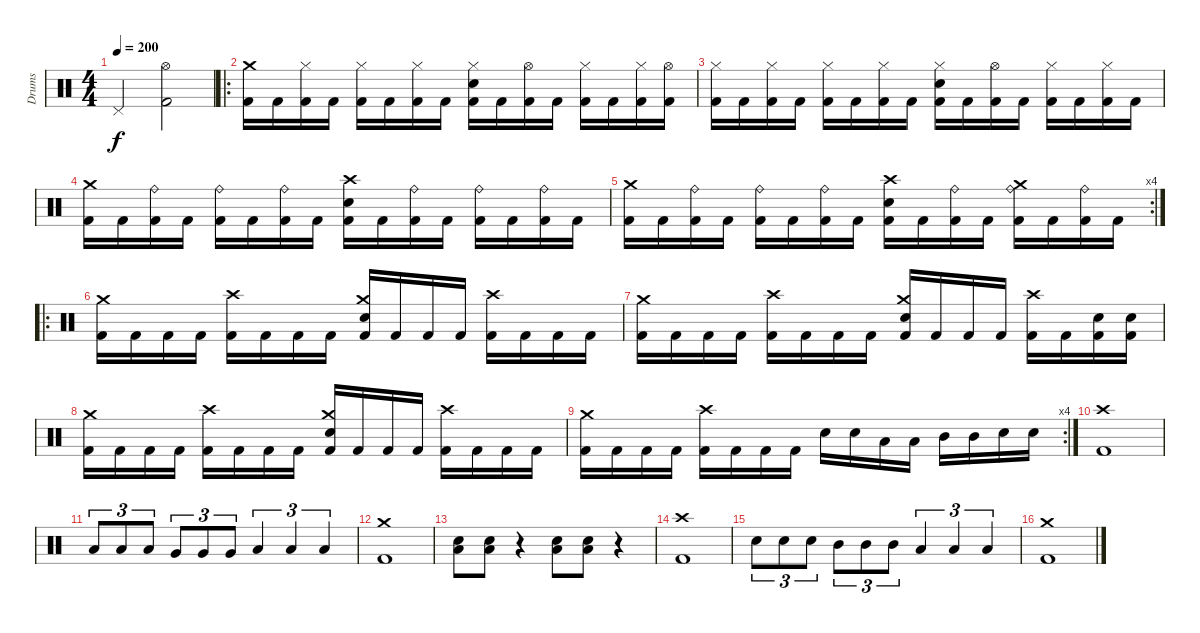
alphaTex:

\track ("Drums" "Drums") {instrument percussion}
\staff {score}
\articulation defaults
\ts (4 4)
\tempo 200
\clef neutral
\ks c "Pedal Hi-Hat (hit)".2{dy f}
("Kick (hit) 2" "Hi-Hat (open)").2 |
\ro
("Kick (hit) 2" "Crash medium (hit)").16 "Kick (hit) 2".16 ("Kick (hit) 2" "Hi-Hat (closed)").16 "Kick (hit) 2".16 ("Kick (hit) 2" "Hi-Hat (closed)").16 "Kick (hit) 2".16 ("Kick (hit) 2" "Hi-Hat (closed)").16 "Kick (hit) 2".16 ("Kick (hit) 2" "Electric Snare (hit)" "Hi-Hat (closed)").16 "Kick (hit) 2".16 ("Kick (hit) 2" "Hi-Hat (open)").16 "Kick (hit) 2".16 ("Kick (hit) 2" "Hi-Hat (closed)").16 "Kick (hit) 2".16 ("Kick (hit) 2" "Hi-Hat (closed)").16 ("Kick (hit) 2" "Hi-Hat (open)").16 |
("Kick (hit) 2" "Hi-Hat (closed)").16 "Kick (hit) 2".16 ("Kick (hit) 2" "Hi-Hat (closed)").16 "Kick (hit) 2".16 ("Kick (hit) 2" "Hi-Hat (closed)").16 "Kick (hit) 2".16 ("Kick (hit) 2" "Hi-Hat (closed)").16 "Kick (hit) 2".16 ("Kick (hit) 2" "Electric Snare (hit)" "Hi-Hat (closed)").16 "Kick (hit) 2".16 ("Kick (hit) 2" "Hi-Hat (open)").16 "Kick (hit) 2".16 ("Kick (hit) 2" "Hi-Hat (closed)").16 "Kick (hit) 2".16 ("Kick (hit) 2" "Hi-Hat (closed)").16 "Kick (hit) 2".16 |
("Kick (hit) 2" "Crash medium (hit)").16 "Kick (hit) 2".16 ("Kick (hit) 2" "Ride (bell)").16 "Kick (hit) 2".16 ("Kick (hit) 2" "Ride (bell)").16 "Kick (hit) 2".16 ("Kick (hit) 2" "Ride (bell)").16 "Kick (hit) 2".16 ("Kick (hit) 2" "Electric Snare (hit)" "Crash high (hit)").16 "Kick (hit) 2".16 ("Kick (hit) 2" "Ride (bell)").16 "Kick (hit) 2".16 ("Kick (hit) 2" "Ride (bell)").16 "Kick (hit) 2".16 ("Kick (hit) 2" "Ride (bell)").16 "Kick (hit) 2".16 |
\rc 4
("Kick (hit) 2" "Crash medium (hit)").16 "Kick (hit) 2".16 ("Kick (hit) 2" "Ride (bell)").16 "Kick (hit) 2".16 ("Kick (hit) 2" "Ride (bell)").16 "Kick (hit) 2".16 ("Kick (hit) 2" "Ride (bell)").16 "Kick (hit) 2".16 ("Kick (hit) 2" "Electric Snare (hit)" "Crash high (hit)").16 "Kick (hit) 2".16 ("Kick (hit) 2" "Ride (bell)").16 "Kick (hit) 2".16 ("Kick (hit) 2" "Ride (bell)" "Crash medium (hit)").16 "Kick (hit) 2".16 ("Kick (hit) 2" "Ride (bell)").16 "Kick (hit) 2".16 |
\ro
("Kick (hit) 2" "Crash medium (hit)").16 "Kick (hit) 2".16 "Kick (hit) 2".16 "Kick (hit) 2".16 ("Kick (hit) 2" "Crash high (hit)").16 "Kick (hit) 2".16 "Kick (hit) 2".16 "Kick (hit) 2".16 ("Kick (hit) 2" "Electric Snare (hit)" "Crash medium (hit)").16 "Kick (hit) 2".16 "Kick (hit) 2".16 "Kick (hit) 2".16 ("Kick (hit) 2" "Crash high (hit)").16 "Kick (hit) 2".16 "Kick (hit) 2".16 "Kick (hit) 2".16 |
("Kick (hit) 2" "Crash medium (hit)").16 "Kick (hit) 2".16 "Kick (hit) 2".16 "Kick (hit) 2".16 ("Kick (hit) 2" "Crash high (hit)").16 "Kick (hit) 2".16 "Kick (hit) 2".16 "Kick (hit) 2".16 ("Kick (hit) 2" "Electric Snare (hit)" "Crash medium (hit)").16 "Kick (hit) 2".16 "Kick (hit) 2".16 "Kick (hit) 2".16 ("Kick (hit) 2" "Crash high (hit)").16 "Kick (hit) 2".16 ("Kick (hit) 2" "Electric Snare (hit)").16 ("Kick (hit) 2" "Electric Snare (hit)").16 |
("Kick (hit) 2" "Crash medium (hit)").16 "Kick (hit) 2".16 "Kick (hit) 2".16 "Kick (hit) 2".16 ("Kick (hit) 2" "Crash high (hit)").16 "Kick (hit) 2".16 "Kick (hit) 2".16 "Kick (hit) 2".16 ("Kick (hit) 2" "Electric Snare (hit)" "Crash medium (hit)").16 "Kick (hit) 2".16 "Kick (hit) 2".16 "Kick (hit) 2".16 ("Kick (hit) 2" "Crash high (hit)").16 "Kick (hit) 2".16 "Kick (hit) 2".16 "Kick (hit) 2".16 |
\rc 4
("Kick (hit) 2" "Crash medium (hit)").16 "Kick (hit) 2".16 "Kick (hit) 2".16 "Kick (hit) 2".16 ("Kick (hit) 2" "Crash high (hit)").16 "Kick (hit) 2".16 "Kick (hit) 2".16 "Kick (hit) 2".16 "Electric Snare (hit)".16 "Electric Snare (hit)".16 "Low Tom (hit)".16 "Low Tom (hit)".16 "Mid Tom (hit)".16 "Mid Tom (hit)".16 "Electric Snare (hit)".16 "Electric Snare (hit)".16 |
("Kick (hit) 2" "Crash high (hit)").1 |
"Low Floor Tom (hit)".8{tu (3 2)} "Low Floor Tom (hit)".8{tu (3 2)} "Low Floor Tom (hit)".8{tu (3 2)} "Very Low Tom (hit)".8{tu (3 2)} "Very Low Tom (hit)".8{tu (3 2)} "Very Low Tom (hit)".8{tu (3 2)} "Low Tom (hit)".4{tu (3 2)} "Low Tom (hit)".4{tu (3 2)} "Low Tom (hit)".4{tu (3 2)} |
("Kick (hit) 2" "Crash medium (hit)").1 |
("Electric Snare (hit)" "Low Tom (hit)").8 ("Electric Snare (hit)" "Low Tom (hit)").8 r.4 ("Electric Snare (hit)" "Low Tom (hit)").8 ("Electric Snare (hit)" "Low Tom (hit)").8 r.4 |
("Kick (hit) 2" "Crash high (hit)").1 |
"Electric Snare (hit)".8{tu (3 2)} "Electric Snare (hit)".8{tu (3 2)} "Electric Snare (hit)".8{tu (3 2)} "Mid Tom (hit)".8{tu (3 2)} "Mid Tom (hit)".8{tu (3 2)} "Mid Tom (hit)".8{tu (3 2)} "Low Tom (hit)".4{tu (3 2)} "Low Tom (hit)".4{tu (3 2)} "Low Tom (hit)".4{tu (3 2)} |
("Kick (hit) 2" "Crash medium (hit)").1
